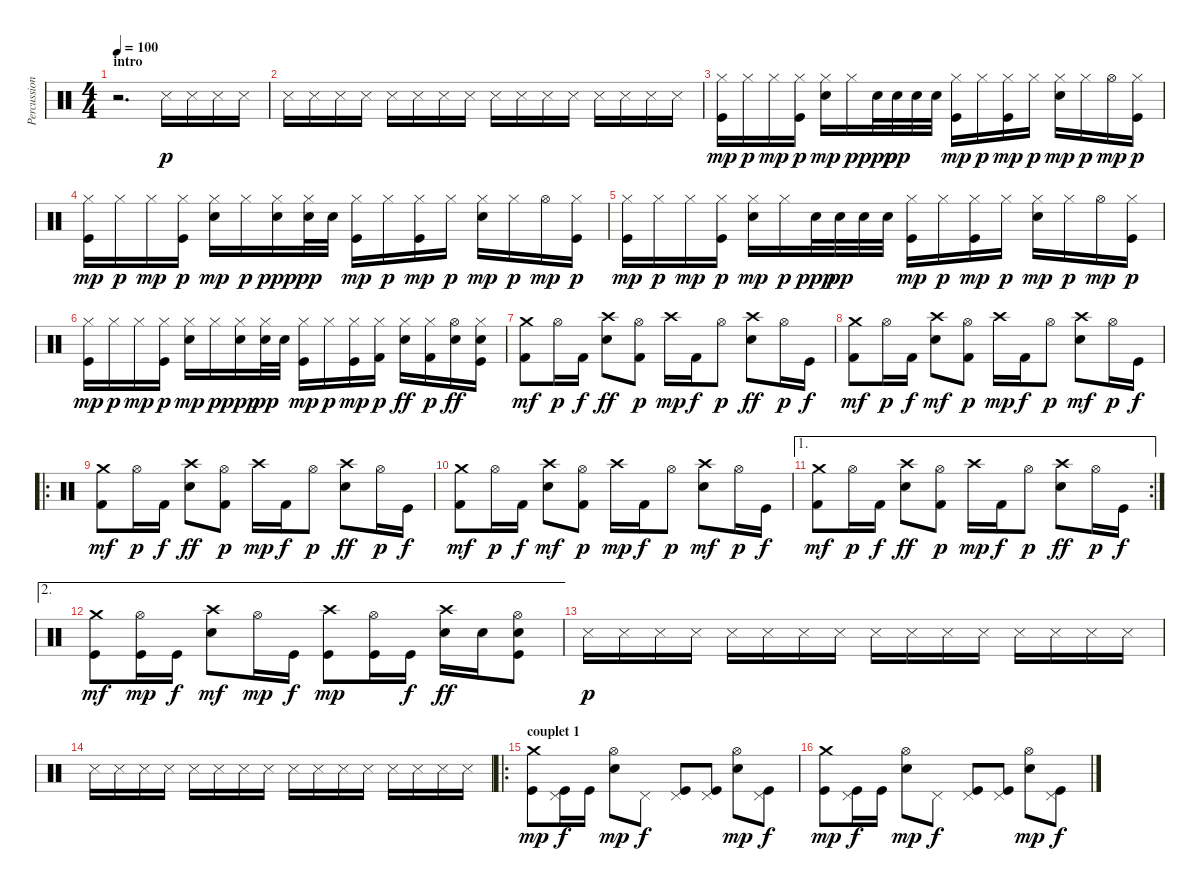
\track ("Percussions" "Percussion") {instrument percussion}
\staff {score}
\articulation defaults
\ts (4 4)
\section ("" "intro")
\tempo 100
\clef neutral
\ks c
r.2{d dy p} "Metronome (hit)".16 "Metronome (hit)".16 "Metronome (hit)".16 "Metronome (hit)".16 |
"Metronome (hit)".16 "Metronome (hit)".16 "Metronome (hit)".16 "Metronome (hit)".16 "Metronome (hit)".16 "Metronome (hit)".16 "Metronome (hit)".16 "Metronome (hit)".16 "Metronome (hit)".16 "Metronome (hit)".16 "Metronome (hit)".16 "Metronome (hit)".16 "Metronome (hit)".16 "Metronome (hit)".16 "Metronome (hit)".16 "Metronome (hit)".16 |
("Hi-Hat (closed)" "Kick (hit)").16{dy mp} "Hi-Hat (closed)".16{dy p} "Hi-Hat (closed)".16{dy mp} ("Hi-Hat (closed)" "Kick (hit)").16{dy p} ("Hi-Hat (closed)" "Electric Snare (hit)").16{dy mp} "Hi-Hat (closed)".16{dy p} "Electric Snare (hit)".32{dy ppp} "Electric Snare (hit)".32{dy pp} "Electric Snare (hit)".32 "Electric Snare (hit)".32 ("Hi-Hat (closed)" "Kick (hit)").16{dy mp} "Hi-Hat (closed)".16{dy p} ("Hi-Hat (closed)" "Kick (hit)").16{dy mp} "Hi-Hat (closed)".16{dy p} ("Hi-Hat (closed)" "Electric Snare (hit)").16{dy mp} "Hi-Hat (closed)".16{dy p} "Hi-Hat (open)".16{dy mp} ("Hi-Hat (closed)" "Kick (hit)").16{dy p} |
("Hi-Hat (closed)" "Kick (hit)").16{dy mp} "Hi-Hat (closed)".16{dy p} "Hi-Hat (closed)".16{dy mp} ("Hi-Hat (closed)" "Kick (hit)").16{dy p} ("Hi-Hat (closed)" "Electric Snare (hit)").16{dy mp} "Hi-Hat (closed)".16{dy p} ("Hi-Hat (closed)" "Electric Snare (hit)").16{dy ppp} ("Hi-Hat (closed)" "Electric Snare (hit)").32{dy pp} "Electric Snare (hit)".32 ("Hi-Hat (closed)" "Kick (hit)").16{dy mp} "Hi-Hat (closed)".16{dy p} ("Hi-Hat (closed)" "Kick (hit)").16{dy mp} "Hi-Hat (closed)".16{dy p} ("Hi-Hat (closed)" "Electric Snare (hit)").16{dy mp} "Hi-Hat (closed)".16{dy p} "Hi-Hat (open)".16{dy mp} ("Hi-Hat (closed)" "Kick (hit)").16{dy p} |
("Hi-Hat (closed)" "Kick (hit)").16{dy mp} "Hi-Hat (closed)".16{dy p} "Hi-Hat (closed)".16{dy mp} ("Hi-Hat (closed)" "Kick (hit)").16{dy p} ("Hi-Hat (closed)" "Electric Snare (hit)").16{dy mp} "Hi-Hat (closed)".16{dy p} "Electric Snare (hit)".32{dy ppp} "Electric Snare (hit)".32{dy pp} "Electric Snare (hit)".32 "Electric Snare (hit)".32 ("Hi-Hat (closed)" "Kick (hit)").16{dy mp} "Hi-Hat (closed)".16{dy p} ("Hi-Hat (closed)" "Kick (hit)").16{dy mp} "Hi-Hat (closed)".16{dy p} ("Hi-Hat (closed)" "Electric Snare (hit)").16{dy mp} "Hi-Hat (closed)".16{dy p} "Hi-Hat (open)".16{dy mp} ("Hi-Hat (closed)" "Kick (hit)").16{dy p} |
("Hi-Hat (closed)" "Kick (hit)").16{dy mp} "Hi-Hat (closed)".16{dy p} "Hi-Hat (closed)".16{dy mp} ("Hi-Hat (closed)" "Kick (hit)").16{dy p} ("Hi-Hat (closed)" "Electric Snare (hit)").16{dy mp} "Hi-Hat (closed)".16{dy p} ("Hi-Hat (closed)" "Electric Snare (hit)").16{dy ppp} ("Hi-Hat (closed)" "Electric Snare (hit)").32{dy pp} "Electric Snare (hit)".32 ("Hi-Hat (closed)" "Kick (hit)").16{dy mp} "Hi-Hat (closed)".16{dy p} ("Hi-Hat (closed)" "Kick (hit)").16{dy mp} ("Hi-Hat (closed)" "Kick (hit) 2").16{dy p} ("Hi-Hat (closed)" "Electric Snare (hit)").16{dy ff} ("Hi-Hat (closed)" "Kick (hit) 2").16{dy p} ("Hi-Hat (open)" "Electric Snare (hit)").16{dy ff} ("Hi-Hat (closed)" "Electric Snare (hit)" "Kick (hit)").16 |
("Crash medium (hit)" "Kick (hit) 2").8{dy mf} "Hi-Hat (open)".16{dy p} "Kick (hit) 2".16{dy f} ("Crash high (hit)" "Electric Snare (hit)").8{dy ff} ("Hi-Hat (open)" "Kick (hit) 2").8{dy p} "Crash high (hit)".16{dy mp} "Kick (hit) 2".16{dy f} "Hi-Hat (open)".8{dy p} ("Crash high (hit)" "Electric Snare (hit)").8{dy ff} "Hi-Hat (open)".16{dy p} "Kick (hit)".16{dy f} |
("Crash medium (hit)" "Kick (hit) 2").8{dy mf} "Hi-Hat (open)".16{dy p} "Kick (hit) 2".16{dy f} ("Crash high (hit)" "Electric Snare (hit)").8{dy mf} ("Hi-Hat (open)" "Kick (hit) 2").8{dy p} "Crash high (hit)".16{dy mp} "Kick (hit) 2".16{dy f} "Hi-Hat (open)".8{dy p} ("Crash high (hit)" "Electric Snare (hit)").8{dy mf} "Hi-Hat (open)".16{dy p} "Kick (hit)".16{dy f} |
\ro
("Crash medium (hit)" "Kick (hit) 2").8{dy mf} "Hi-Hat (open)".16{dy p} "Kick (hit) 2".16{dy f} ("Crash high (hit)" "Electric Snare (hit)").8{dy ff} ("Hi-Hat (open)" "Kick (hit) 2").8{dy p} "Crash high (hit)".16{dy mp} "Kick (hit) 2".16{dy f} "Hi-Hat (open)".8{dy p} ("Crash high (hit)" "Electric Snare (hit)").8{dy ff} "Hi-Hat (open)".16{dy p} "Kick (hit)".16{dy f} |
("Crash medium (hit)" "Kick (hit) 2").8{dy mf} "Hi-Hat (open)".16{dy p} "Kick (hit) 2".16{dy f} ("Crash high (hit)" "Electric Snare (hit)").8{dy mf} ("Hi-Hat (open)" "Kick (hit) 2").8{dy p} "Crash high (hit)".16{dy mp} "Kick (hit) 2".16{dy f} "Hi-Hat (open)".8{dy p} ("Crash high (hit)" "Electric Snare (hit)").8{dy mf} "Hi-Hat (open)".16{dy p} "Kick (hit)".16{dy f} |
\ae 1
\rc 2
("Crash medium (hit)" "Kick (hit) 2").8{dy mf} "Hi-Hat (open)".16{dy p} "Kick (hit) 2".16{dy f} ("Crash high (hit)" "Electric Snare (hit)").8{dy ff} ("Hi-Hat (open)" "Kick (hit) 2").8{dy p} "Crash high (hit)".16{dy mp} "Kick (hit) 2".16{dy f} "Hi-Hat (open)".8{dy p} ("Crash high (hit)" "Electric Snare (hit)").8{dy ff} "Hi-Hat (open)".16{dy p} "Kick (hit)".16{dy f} |
\ae 2
("Crash medium (hit)" "Kick (hit)").8{dy mf} ("Hi-Hat (open)" "Kick (hit)").16{dy mp} "Kick (hit)".16{dy f} ("Crash high (hit)" "Electric Snare (hit)").8{dy mf} "Hi-Hat (open)".16{dy mp} "Kick (hit)".16{dy f} ("Crash high (hit)" "Kick (hit)").8{dy mp} ("Hi-Hat (open)" "Kick (hit)").16 "Kick (hit)".16{dy f} ("Crash high (hit)" "Electric Snare (hit)").16{dy ff} "Electric Snare (hit)".16 ("Hi-Hat (open)" "Electric Snare (hit)" "Kick (hit)").8 |
"Metronome (hit)".16{dy p volume 10} "Metronome (hit)".16 "Metronome (hit)".16 "Metronome (hit)".16 "Metronome (hit)".16 "Metronome (hit)".16 "Metronome (hit)".16 "Metronome (hit)".16 "Metronome (hit)".16 "Metronome (hit)".16 "Metronome (hit)".16 "Metronome (hit)".16 "Metronome (hit)".16 "Metronome (hit)".16 "Metronome (hit)".16 "Metronome (hit)".16 |
"Metronome (hit)".16 "Metronome (hit)".16 "Metronome (hit)".16 "Metronome (hit)".16 "Metronome (hit)".16 "Metronome (hit)".16 "Metronome (hit)".16 "Metronome (hit)".16 "Metronome (hit)".16 "Metronome (hit)".16 "Metronome (hit)".16 "Metronome (hit)".16 "Metronome (hit)".16 "Metronome (hit)".16 "Metronome (hit)".16 "Metronome (hit)".16 |
\ro
\section ("" "couplet 1")
("Crash medium (hit)" "Kick (hit)").8{dy mp} ("Pedal Hi-Hat (hit)" "Kick (hit)").16{dy f} "Kick (hit)".16 ("Hi-Hat (open)" "Electric Snare (hit)").8{dy mp} "Pedal Hi-Hat (hit)".8{dy f} ("Pedal Hi-Hat (hit)" "Kick (hit)").8 ("Pedal Hi-Hat (hit)" "Kick (hit)").8 ("Hi-Hat (open)" "Electric Snare (hit)").8{dy mp} ("Pedal Hi-Hat (hit)" "Kick (hit)").8{dy f} |
("Crash medium (hit)" "Kick (hit)").8{dy mp} ("Pedal Hi-Hat (hit)" "Kick (hit)").16{dy f} "Kick (hit)".16 ("Hi-Hat (open)" "Electric Snare (hit)").8{dy mp} "Pedal Hi-Hat (hit)".8{dy f} ("Pedal Hi-Hat (hit)" "Kick (hit)").8 ("Pedal Hi-Hat (hit)" "Kick (hit)").8 ("Hi-Hat (open)" "Electric Snare (hit)").8{dy mp} ("Pedal Hi-Hat (hit)" "Kick (hit)").8{dy f}
